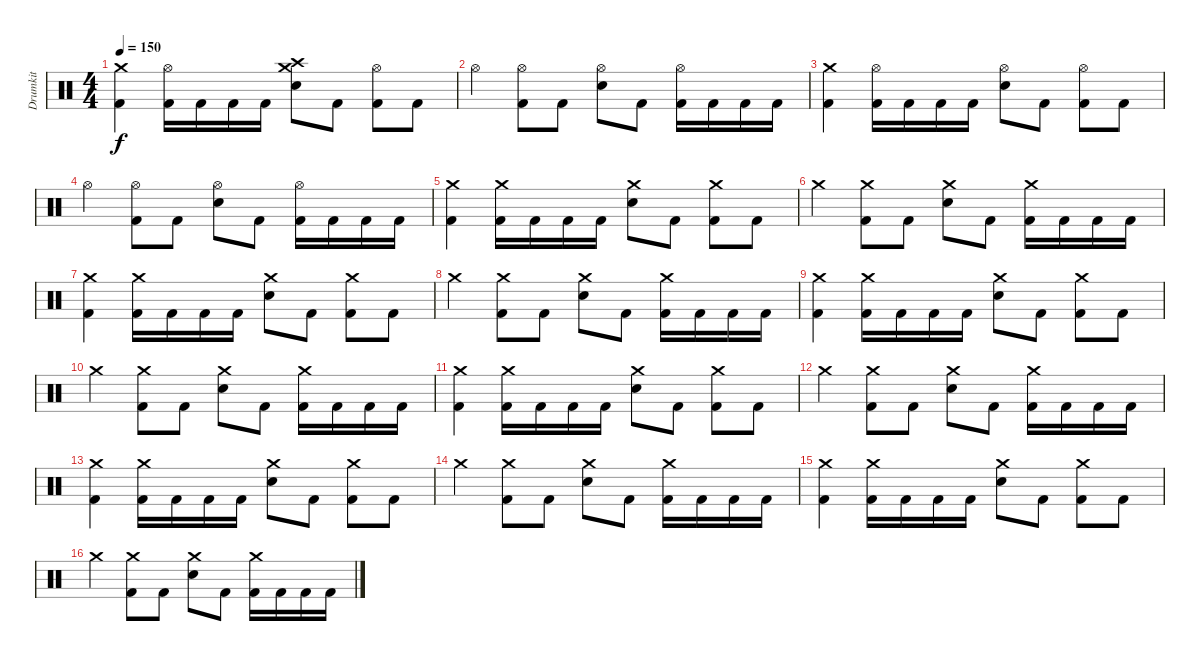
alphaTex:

\track ("Drumkit" "Drumkit") {instrument percussion}
\staff {score}
\articulation defaults
\ts (4 4)
\tempo 150
\clef neutral
\ks c
("Crash medium (hit)" "Kick (hit) 2").4{dy f} ("Kick (hit) 2" "Hi-Hat (open)").16 "Kick (hit) 2".16 "Kick (hit) 2".16 "Kick (hit) 2".16 ("Crash medium (hit)" "Crash high (hit)" "Snare (hit) 2").8 "Kick (hit) 2".8 ("Kick (hit) 2" "Hi-Hat (open)").8 "Kick (hit) 2".8 |
"Hi-Hat (open)".4 ("Hi-Hat (open)" "Kick (hit) 2").8 "Kick (hit) 2".8 ("Snare (hit) 2" "Hi-Hat (open)").8 "Kick (hit) 2".8 ("Kick (hit) 2" "Hi-Hat (open)").16 "Kick (hit) 2".16 "Kick (hit) 2".16 "Kick (hit) 2".16 |
("Crash medium (hit)" "Kick (hit) 2").4 ("Kick (hit) 2" "Hi-Hat (open)").16 "Kick (hit) 2".16 "Kick (hit) 2".16 "Kick (hit) 2".16 ("Snare (hit) 2" "Hi-Hat (open)").8 "Kick (hit) 2".8 ("Kick (hit) 2" "Hi-Hat (open)").8 "Kick (hit) 2".8 |
"Hi-Hat (open)".4 ("Hi-Hat (open)" "Kick (hit) 2").8 "Kick (hit) 2".8 ("Snare (hit) 2" "Hi-Hat (open)").8 "Kick (hit) 2".8 ("Kick (hit) 2" "Hi-Hat (open)").16 "Kick (hit) 2".16 "Kick (hit) 2".16 "Kick (hit) 2".16 |
("Crash medium (hit)" "Kick (hit) 2").4 ("Kick (hit) 2" "Crash medium (hit)").16 "Kick (hit) 2".16 "Kick (hit) 2".16 "Kick (hit) 2".16 ("Crash medium (hit)" "Snare (hit) 2").8 "Kick (hit) 2".8 ("Kick (hit) 2" "Crash medium (hit)").8 "Kick (hit) 2".8 |
"Crash medium (hit)".4 ("Kick (hit) 2" "Crash medium (hit)").8 "Kick (hit) 2".8 ("Snare (hit) 2" "Crash medium (hit)").8 "Kick (hit) 2".8 ("Kick (hit) 2" "Crash medium (hit)").16 "Kick (hit) 2".16 "Kick (hit) 2".16 "Kick (hit) 2".16 |
("Crash medium (hit)" "Kick (hit) 2").4 ("Kick (hit) 2" "Crash medium (hit)").16 "Kick (hit) 2".16 "Kick (hit) 2".16 "Kick (hit) 2".16 ("Crash medium (hit)" "Snare (hit) 2").8 "Kick (hit) 2".8 ("Kick (hit) 2" "Crash medium (hit)").8 "Kick (hit) 2".8 |
"Crash medium (hit)".4 ("Kick (hit) 2" "Crash medium (hit)").8 "Kick (hit) 2".8 ("Snare (hit) 2" "Crash medium (hit)").8 "Kick (hit) 2".8 ("Kick (hit) 2" "Crash medium (hit)").16 "Kick (hit) 2".16 "Kick (hit) 2".16 "Kick (hit) 2".16 |
("Crash medium (hit)" "Kick (hit) 2").4 ("Kick (hit) 2" "Crash medium (hit)").16 "Kick (hit) 2".16 "Kick (hit) 2".16 "Kick (hit) 2".16 ("Crash medium (hit)" "Snare (hit) 2").8 "Kick (hit) 2".8 ("Kick (hit) 2" "Crash medium (hit)").8 "Kick (hit) 2".8 |
"Crash medium (hit)".4 ("Kick (hit) 2" "Crash medium (hit)").8 "Kick (hit) 2".8 ("Snare (hit) 2" "Crash medium (hit)").8 "Kick (hit) 2".8 ("Kick (hit) 2" "Crash medium (hit)").16 "Kick (hit) 2".16 "Kick (hit) 2".16 "Kick (hit) 2".16 |
("Crash medium (hit)" "Kick (hit) 2").4 ("Kick (hit) 2" "Crash medium (hit)").16 "Kick (hit) 2".16 "Kick (hit) 2".16 "Kick (hit) 2".16 ("Crash medium (hit)" "Snare (hit) 2").8 "Kick (hit) 2".8 ("Kick (hit) 2" "Crash medium (hit)").8 "Kick (hit) 2".8 |
"Crash medium (hit)".4 ("Kick (hit) 2" "Crash medium (hit)").8 "Kick (hit) 2".8 ("Snare (hit) 2" "Crash medium (hit)").8 "Kick (hit) 2".8 ("Kick (hit) 2" "Crash medium (hit)").16 "Kick (hit) 2".16 "Kick (hit) 2".16 "Kick (hit) 2".16 |
("Crash medium (hit)" "Kick (hit) 2").4 ("Kick (hit) 2" "Crash medium (hit)").16 "Kick (hit) 2".16 "Kick (hit) 2".16 "Kick (hit) 2".16 ("Crash medium (hit)" "Snare (hit) 2").8 "Kick (hit) 2".8 ("Kick (hit) 2" "Crash medium (hit)").8 "Kick (hit) 2".8 |
"Crash medium (hit)".4 ("Kick (hit) 2" "Crash medium (hit)").8 "Kick (hit) 2".8 ("Snare (hit) 2" "Crash medium (hit)").8 "Kick (hit) 2".8 ("Kick (hit) 2" "Crash medium (hit)").16 "Kick (hit) 2".16 "Kick (hit) 2".16 "Kick (hit) 2".16 |
("Crash medium (hit)" "Kick (hit) 2").4 ("Kick (hit) 2" "Crash medium (hit)").16 "Kick (hit) 2".16 "Kick (hit) 2".16 "Kick (hit) 2".16 ("Crash medium (hit)" "Snare (hit) 2").8 "Kick (hit) 2".8 ("Kick (hit) 2" "Crash medium (hit)").8 "Kick (hit) 2".8 |
"Crash medium (hit)".4 ("Kick (hit) 2" "Crash medium (hit)").8 "Kick (hit) 2".8 ("Snare (hit) 2" "Crash medium (hit)").8 "Kick (hit) 2".8 ("Kick (hit) 2" "Crash medium (hit)").16 "Kick (hit) 2".16 "Kick (hit) 2".16 "Kick (hit) 2".16
